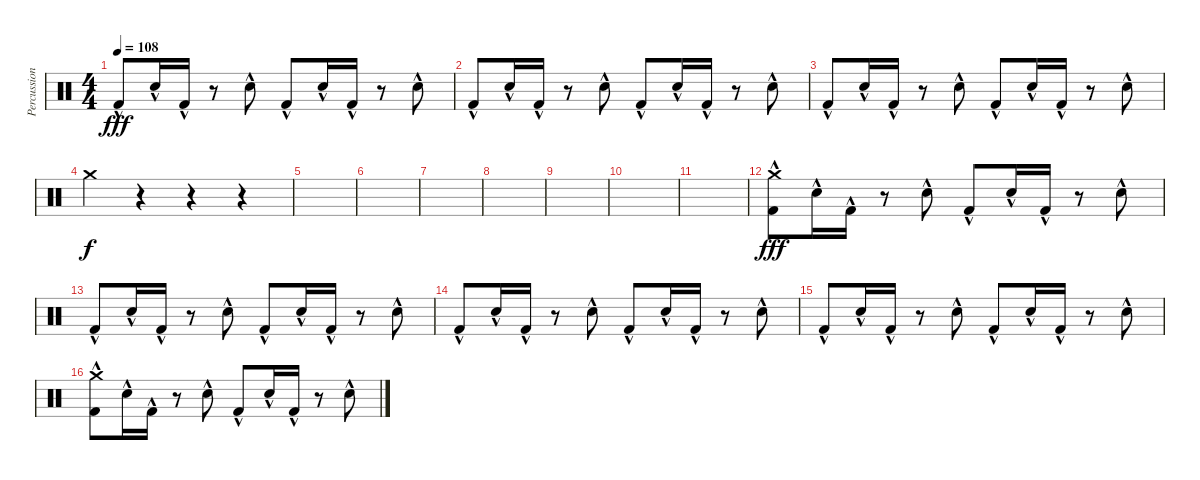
\track ("Percussioni" "Percussion") {instrument percussion}
\staff {score}
\articulation defaults
\ts (4 4)
\tempo 108
\clef neutral
\ks c "Kick (hit) 2"{hac}.8{dy fff} "Snare (hit) 2"{hac}.16 "Kick (hit) 2"{hac}.16
r.8 "Snare (hit) 2"{hac}.8 "Kick (hit) 2"{hac}.8 "Snare (hit) 2"{hac}.16 "Kick (hit) 2"{hac}.16 r.8 "Snare (hit) 2"{hac}.8 |
"Kick (hit) 2"{hac}.8 "Snare (hit) 2"{hac}.16 "Kick (hit) 2"{hac}.16 r.8 "Snare (hit) 2"{hac}.8 "Kick (hit) 2"{hac}.8 "Snare (hit) 2"{hac}.16 "Kick (hit) 2"{hac}.16 r.8 "Snare (hit) 2"{hac}.8 |
"Kick (hit) 2"{hac}.8 "Snare (hit) 2"{hac}.16 "Kick (hit) 2"{hac}.16 r.8 "Snare (hit) 2"{hac}.8 "Kick (hit) 2"{hac}.8 "Snare (hit) 2"{hac}.16 "Kick (hit) 2"{hac}.16 r.8 "Snare (hit) 2"{hac}.8 |
"Crash medium (hit)".4{dy f} r.4 r.4 r.4 |
|
|
|
|
|
|
|
("Crash medium (hit)" "Kick (hit) 2"{hac}).8{dy fff} "Snare (hit) 2"{hac}.16 "Kick (hit) 2"{hac}.16 r.8 "Snare (hit) 2"{hac}.8 "Kick (hit) 2"{hac}.8 "Snare (hit) 2"{hac}.16 "Kick (hit) 2"{hac}.16 r.8 "Snare (hit) 2"{hac}.8 |
"Kick (hit) 2"{hac}.8 "Snare (hit) 2"{hac}.16 "Kick (hit) 2"{hac}.16 r.8 "Snare (hit) 2"{hac}.8 "Kick (hit) 2"{hac}.8 "Snare (hit) 2"{hac}.16 "Kick (hit) 2"{hac}.16 r.8 "Snare (hit) 2"{hac}.8 |
"Kick (hit) 2"{hac}.8 "Snare (hit) 2"{hac}.16 "Kick (hit) 2"{hac}.16 r.8 "Snare (hit) 2"{hac}.8 "Kick (hit) 2"{hac}.8 "Snare (hit) 2"{hac}.16 "Kick (hit) 2"{hac}.16 r.8 "Snare (hit) 2"{hac}.8 |
"Kick (hit) 2"{hac}.8 "Snare (hit) 2"{hac}.16 "Kick (hit) 2"{hac}.16 r.8 "Snare (hit) 2"{hac}.8 "Kick (hit) 2"{hac}.8 "Snare (hit) 2"{hac}.16 "Kick (hit) 2"{hac}.16 r.8 "Snare (hit) 2"{hac}.8 |
("Crash medium (hit)" "Kick (hit) 2"{hac}).8 "Snare (hit) 2"{hac}.16 "Kick (hit) 2"{hac}.16 r.8 "Snare (hit) 2"{hac}.8 "Kick (hit) 2"{hac}.8 "Snare (hit) 2"{hac}.16 "Kick (hit) 2"{hac}.16 r.8 "Snare (hit) 2"{hac}.8
